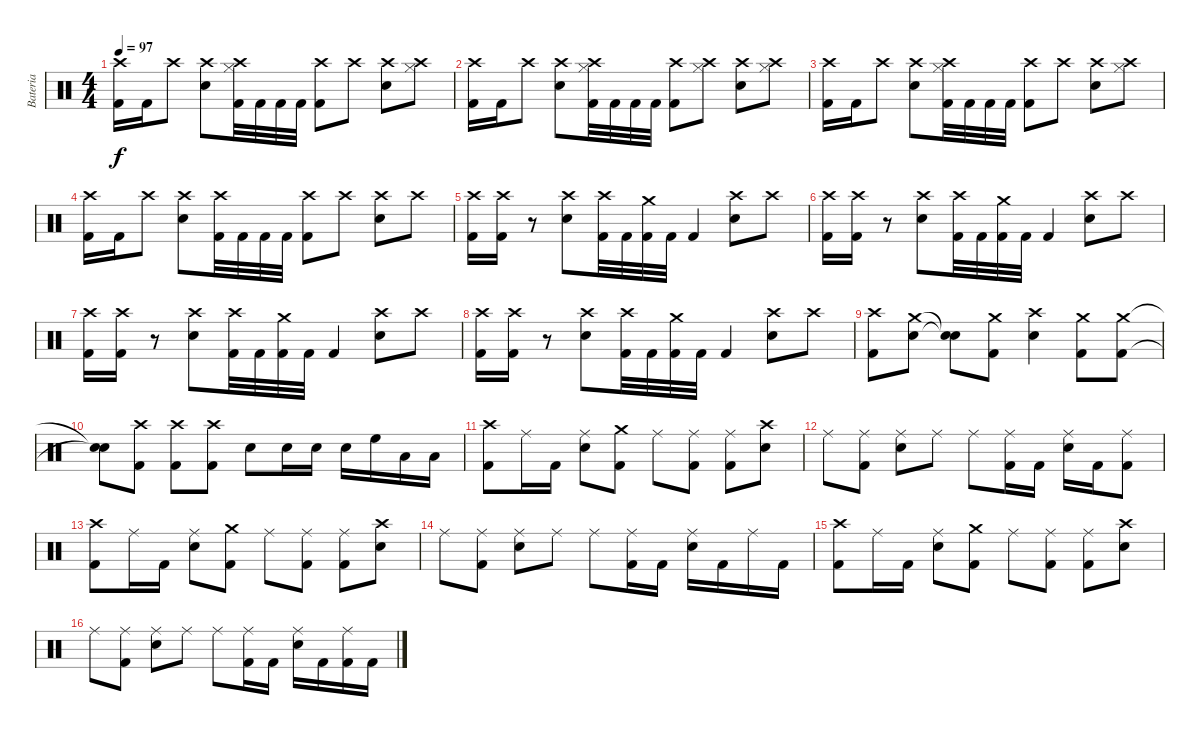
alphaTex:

\track ("Bateria" "Bateria") {instrument percussion}
\staff {score}
\articulation defaults
\ts (4 4)
\tempo 97
\clef neutral
\ks c
("Crash high (hit)" "Kick (hit) 2").16{dy f} "Kick (hit) 2".16 "Crash high (hit)".8 ("Crash high (hit)" "Electric Snare (hit)").8 ("Crash high (hit)" "Hi-Hat (closed)" "Kick (hit) 2").32 "Kick (hit) 2".32 "Kick (hit) 2".32 "Kick (hit) 2".32 ("Crash high (hit)" "Kick (hit) 2").8 "Crash high (hit)".8 ("Crash high (hit)" "Electric Snare (hit)").8 ("Crash high (hit)" "Hi-Hat (closed)").8 |
("Crash high (hit)" "Kick (hit) 2").16 "Kick (hit) 2".16 "Crash high (hit)".8 ("Crash high (hit)" "Electric Snare (hit)").8 ("Crash high (hit)" "Hi-Hat (closed)" "Kick (hit) 2").32 "Kick (hit) 2".32 "Kick (hit) 2".32 "Kick (hit) 2".32 ("Crash high (hit)" "Kick (hit) 2").8 ("Crash high (hit)" "Hi-Hat (closed)").8 ("Crash high (hit)" "Electric Snare (hit)").8 ("Crash high (hit)" "Hi-Hat (closed)").8 |
("Crash high (hit)" "Kick (hit) 2").16 "Kick (hit) 2".16 "Crash high (hit)".8 ("Crash high (hit)" "Electric Snare (hit)").8 ("Crash high (hit)" "Hi-Hat (closed)" "Kick (hit) 2").32 "Kick (hit) 2".32 "Kick (hit) 2".32 "Kick (hit) 2".32 ("Crash high (hit)" "Kick (hit) 2").8 "Crash high (hit)".8 ("Crash high (hit)" "Electric Snare (hit)").8 ("Crash high (hit)" "Hi-Hat (closed)").8 |
("Crash high (hit)" "Kick (hit) 2").16 "Kick (hit) 2".16 "Crash high (hit)".8 ("Crash high (hit)" "Electric Snare (hit)").8 ("Crash high (hit)" "Kick (hit) 2").32 "Kick (hit) 2".32 "Kick (hit) 2".32 "Kick (hit) 2".32 ("Crash high (hit)" "Kick (hit) 2").8 "Crash high (hit)".8 ("Crash high (hit)" "Electric Snare (hit)").8 "Crash high (hit)".8 |
("Crash high (hit)" "Kick (hit) 2").16 ("Crash high (hit)" "Kick (hit) 2").16 r.8 ("Crash high (hit)" "Electric Snare (hit)").8 ("Crash high (hit)" "Kick (hit) 2").32 "Kick (hit) 2".32 ("Crash medium (hit)" "Kick (hit) 2").32 "Kick (hit) 2".32 "Kick (hit) 2".4 ("Crash high (hit)" "Electric Snare (hit)").8 "Crash high (hit)".8 |
("Crash high (hit)" "Kick (hit) 2").16 ("Crash high (hit)" "Kick (hit) 2").16 r.8 ("Crash high (hit)" "Electric Snare (hit)").8 ("Crash high (hit)" "Kick (hit) 2").32 "Kick (hit) 2".32 ("Crash medium (hit)" "Kick (hit) 2").32 "Kick (hit) 2".32 "Kick (hit) 2".4 ("Crash high (hit)" "Electric Snare (hit)").8 "Crash high (hit)".8 |
("Crash high (hit)" "Kick (hit) 2").16 ("Crash high (hit)" "Kick (hit) 2").16 r.8 ("Crash high (hit)" "Electric Snare (hit)").8 ("Crash high (hit)" "Kick (hit) 2").32 "Kick (hit) 2".32 ("Crash medium (hit)" "Kick (hit) 2").32 "Kick (hit) 2".32 "Kick (hit) 2".4 ("Crash high (hit)" "Electric Snare (hit)").8 "Crash high (hit)".8 |
("Crash high (hit)" "Kick (hit) 2").16 ("Crash high (hit)" "Kick (hit) 2").16 r.8 ("Crash high (hit)" "Electric Snare (hit)").8 ("Crash high (hit)" "Kick (hit) 2").32 "Kick (hit) 2".32 ("Crash medium (hit)" "Kick (hit) 2").32 "Kick (hit) 2".32 "Kick (hit) 2".4 ("Crash high (hit)" "Electric Snare (hit)").8 "Crash high (hit)".8 |
("Crash high (hit)" "Kick (hit) 2").8 ("Crash medium (hit)" "Electric Snare (hit)").8 ("Snare (hit)"{t} "Snare (hit)"{t}).8 ("Crash medium (hit)" "Kick (hit) 2").8 ("Crash high (hit)" "Electric Snare (hit)").4 ("Crash medium (hit)" "Kick (hit) 2").8 ("Crash medium (hit)" "Kick (hit) 2").8 |
("Snare (hit)"{t} "Snare (hit)"{t}).8 ("Crash high (hit)" "Kick (hit) 2").8 ("Crash high (hit)" "Kick (hit) 2").8 ("Crash high (hit)" "Kick (hit) 2").8 "Electric Snare (hit)".8 "Electric Snare (hit)".16 "Electric Snare (hit)".16 "Electric Snare (hit)".16 "High Floor Tom (hit)".16 "Low Tom (hit)".16 "Low Tom (hit)".16 |
("Crash high (hit)" "Kick (hit) 2").8 "Ride (middle)".16 "Kick (hit) 2".16 ("Ride (middle)" "Electric Snare (hit)").8 ("Crash medium (hit)" "Kick (hit) 2").8 "Ride (middle)".8 ("Ride (middle)" "Kick (hit) 2").8 ("Ride (middle)" "Kick (hit) 2").8 ("Crash high (hit)" "Electric Snare (hit)").8 |
"Ride (middle)".8 ("Ride (middle)" "Kick (hit) 2").8 ("Ride (middle)" "Electric Snare (hit)").8 "Ride (middle)".8 "Ride (middle)".8 ("Ride (middle)" "Kick (hit) 2").16 "Kick (hit) 2".16 ("Ride (middle)" "Electric Snare (hit)").16 "Kick (hit) 2".16 ("Ride (middle)" "Kick (hit) 2").8 |
("Crash high (hit)" "Kick (hit) 2").8 "Ride (middle)".16 "Kick (hit) 2".16 ("Ride (middle)" "Electric Snare (hit)").8 ("Crash medium (hit)" "Kick (hit) 2").8 "Ride (middle)".8 ("Ride (middle)" "Kick (hit) 2").8 ("Ride (middle)" "Kick (hit) 2").8 ("Crash high (hit)" "Electric Snare (hit)").8 |
"Ride (middle)".8 ("Ride (middle)" "Kick (hit) 2").8 ("Ride (middle)" "Electric Snare (hit)").8 "Ride (middle)".8 "Ride (middle)".8 ("Ride (middle)" "Kick (hit) 2").16 "Kick (hit) 2".16 ("Ride (middle)" "Electric Snare (hit)").16 "Kick (hit) 2".16 "Ride (middle)".16 "Kick (hit) 2".16 |
("Crash high (hit)" "Kick (hit) 2").8 "Ride (middle)".16 "Kick (hit) 2".16 ("Ride (middle)" "Electric Snare (hit)").8 ("Crash medium (hit)" "Kick (hit) 2").8 "Ride (middle)".8 ("Ride (middle)" "Kick (hit) 2").8 ("Ride (middle)" "Kick (hit) 2").8 ("Crash high (hit)" "Electric Snare (hit)").8 |
"Ride (middle)".8 ("Ride (middle)" "Kick (hit) 2").8 ("Ride (middle)" "Electric Snare (hit)").8 "Ride (middle)".8 "Ride (middle)".8 ("Ride (middle)" "Kick (hit) 2").16 "Kick (hit) 2".16 ("Ride (middle)" "Electric Snare (hit)").16 "Kick (hit) 2".16 ("Ride (middle)" "Kick (hit) 2").16 "Kick (hit) 2".16
